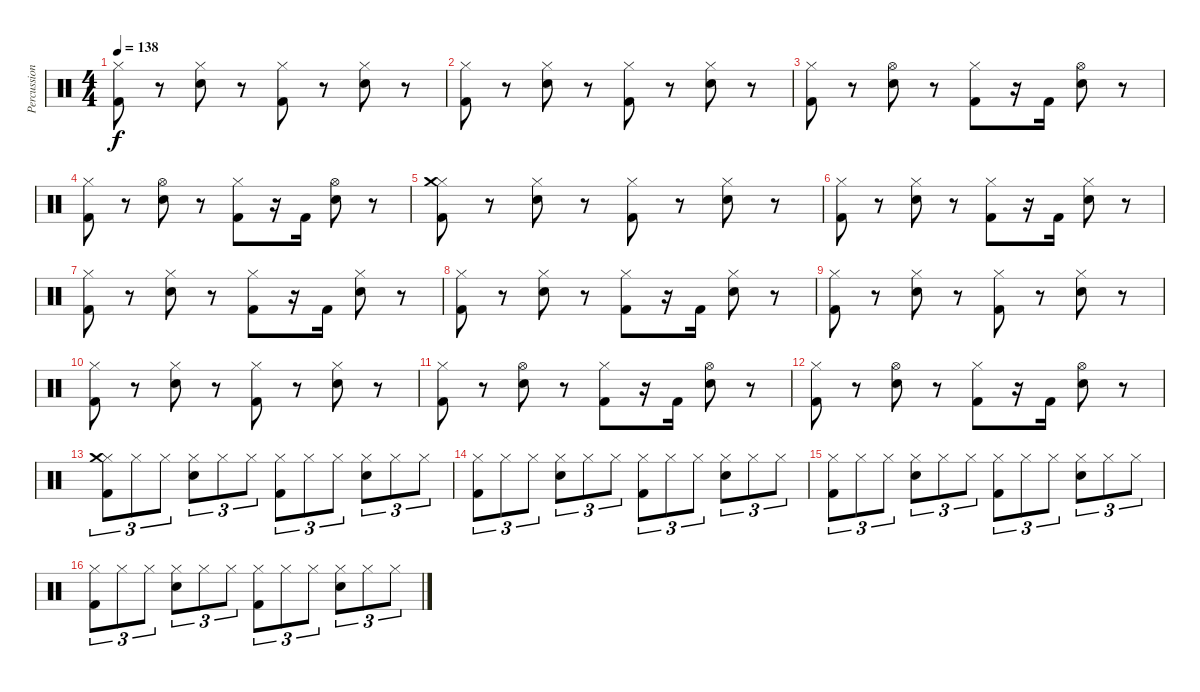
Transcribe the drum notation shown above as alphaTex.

\track ("Percussions" "Percussion") {instrument percussion}
\staff {score}
\articulation defaults
\ts (4 4)
\tempo 138
\clef neutral
\ks c
("Hi-Hat (closed)" "Kick (hit) 2").8{dy f} r.8 ("Hi-Hat (closed)" "Electric Snare (hit)").8 r.8 ("Hi-Hat (closed)" "Kick (hit) 2").8 r.8 ("Hi-Hat (closed)" "Electric Snare (hit)").8 r.8 |
("Hi-Hat (closed)" "Kick (hit) 2").8 r.8 ("Hi-Hat (closed)" "Electric Snare (hit)").8 r.8 ("Hi-Hat (closed)" "Kick (hit) 2").8 r.8 ("Hi-Hat (closed)" "Electric Snare (hit)").8 r.8 |
("Hi-Hat (closed)" "Kick (hit) 2").8 r.8 ("Hi-Hat (open)" "Electric Snare (hit)").8 r.8 ("Hi-Hat (closed)" "Kick (hit) 2").8 r.16 "Kick (hit) 2".16 ("Hi-Hat (open)" "Electric Snare (hit)").8 r.8 |
("Hi-Hat (closed)" "Kick (hit) 2").8 r.8 ("Hi-Hat (open)" "Electric Snare (hit)").8 r.8 ("Hi-Hat (closed)" "Kick (hit) 2").8 r.16 "Kick (hit) 2".16 ("Hi-Hat (open)" "Electric Snare (hit)").8 r.8 |
("Hi-Hat (closed)" "Crash medium (hit)" "Kick (hit) 2").8 r.8 ("Hi-Hat (closed)" "Electric Snare (hit)").8 r.8 ("Hi-Hat (closed)" "Kick (hit) 2").8 r.8 ("Hi-Hat (closed)" "Electric Snare (hit)").8 r.8 |
("Hi-Hat (closed)" "Kick (hit) 2").8 r.8 ("Hi-Hat (closed)" "Electric Snare (hit)").8 r.8 ("Hi-Hat (closed)" "Kick (hit) 2").8 r.16 "Kick (hit) 2".16 ("Hi-Hat (closed)" "Electric Snare (hit)").8 r.8 |
("Hi-Hat (closed)" "Kick (hit) 2").8 r.8 ("Hi-Hat (closed)" "Electric Snare (hit)").8 r.8 ("Hi-Hat (closed)" "Kick (hit) 2").8 r.16 "Kick (hit) 2".16 ("Hi-Hat (closed)" "Electric Snare (hit)").8 r.8 |
("Hi-Hat (closed)" "Kick (hit) 2").8 r.8 ("Hi-Hat (closed)" "Electric Snare (hit)").8 r.8 ("Hi-Hat (closed)" "Kick (hit) 2").8 r.16 "Kick (hit) 2".16 ("Hi-Hat (closed)" "Electric Snare (hit)").8 r.8 |
("Hi-Hat (closed)" "Kick (hit) 2").8 r.8 ("Hi-Hat (closed)" "Electric Snare (hit)").8 r.8 ("Hi-Hat (closed)" "Kick (hit) 2").8 r.8 ("Hi-Hat (closed)" "Electric Snare (hit)").8 r.8 |
("Hi-Hat (closed)" "Kick (hit) 2").8 r.8 ("Hi-Hat (closed)" "Electric Snare (hit)").8 r.8 ("Hi-Hat (closed)" "Kick (hit) 2").8 r.8 ("Hi-Hat (closed)" "Electric Snare (hit)").8 r.8 |
("Hi-Hat (closed)" "Kick (hit) 2").8 r.8 ("Hi-Hat (open)" "Electric Snare (hit)").8 r.8 ("Hi-Hat (closed)" "Kick (hit) 2").8 r.16 "Kick (hit) 2".16 ("Hi-Hat (open)" "Electric Snare (hit)").8 r.8 |
("Hi-Hat (closed)" "Kick (hit) 2").8 r.8 ("Hi-Hat (open)" "Electric Snare (hit)").8 r.8 ("Hi-Hat (closed)" "Kick (hit) 2").8 r.16 "Kick (hit) 2".16 ("Hi-Hat (open)" "Electric Snare (hit)").8 r.8 |
("Hi-Hat (closed)" "Crash medium (hit)" "Kick (hit) 2").8{tu (3 2)} "Hi-Hat (closed)".8{tu (3 2)} "Hi-Hat (closed)".8{tu (3 2)} ("Hi-Hat (closed)" "Electric Snare (hit)").8{tu (3 2)} "Hi-Hat (closed)".8{tu (3 2)} "Hi-Hat (closed)".8{tu (3 2)} ("Hi-Hat (closed)" "Kick (hit) 2").8{tu (3 2)} "Hi-Hat (closed)".8{tu (3 2)} "Hi-Hat (closed)".8{tu (3 2)} ("Hi-Hat (closed)" "Electric Snare (hit)").8{tu (3 2)} "Hi-Hat (closed)".8{tu (3 2)} "Hi-Hat (closed)".8{tu (3 2)} |
("Hi-Hat (closed)" "Kick (hit) 2").8{tu (3 2)} "Hi-Hat (closed)".8{tu (3 2)} "Hi-Hat (closed)".8{tu (3 2)} ("Hi-Hat (closed)" "Electric Snare (hit)").8{tu (3 2)} "Hi-Hat (closed)".8{tu (3 2)} "Hi-Hat (closed)".8{tu (3 2)} ("Hi-Hat (closed)" "Kick (hit) 2").8{tu (3 2)} "Hi-Hat (closed)".8{tu (3 2)} "Hi-Hat (closed)".8{tu (3 2)} ("Hi-Hat (closed)" "Electric Snare (hit)").8{tu (3 2)} "Hi-Hat (closed)".8{tu (3 2)} "Hi-Hat (closed)".8{tu (3 2)} |
("Hi-Hat (closed)" "Kick (hit) 2").8{tu (3 2)} "Hi-Hat (closed)".8{tu (3 2)} "Hi-Hat (closed)".8{tu (3 2)} ("Hi-Hat (closed)" "Electric Snare (hit)").8{tu (3 2)} "Hi-Hat (closed)".8{tu (3 2)} "Hi-Hat (closed)".8{tu (3 2)} ("Hi-Hat (closed)" "Kick (hit) 2").8{tu (3 2)} "Hi-Hat (closed)".8{tu (3 2)} "Hi-Hat (closed)".8{tu (3 2)} ("Hi-Hat (closed)" "Electric Snare (hit)").8{tu (3 2)} "Hi-Hat (closed)".8{tu (3 2)} "Hi-Hat (closed)".8{tu (3 2)} |
("Hi-Hat (closed)" "Kick (hit) 2").8{tu (3 2)} "Hi-Hat (closed)".8{tu (3 2)} "Hi-Hat (closed)".8{tu (3 2)} ("Hi-Hat (closed)" "Electric Snare (hit)").8{tu (3 2)} "Hi-Hat (closed)".8{tu (3 2)} "Hi-Hat (closed)".8{tu (3 2)} ("Hi-Hat (closed)" "Kick (hit) 2").8{tu (3 2)} "Hi-Hat (closed)".8{tu (3 2)} "Hi-Hat (closed)".8{tu (3 2)} ("Hi-Hat (closed)" "Electric Snare (hit)").8{tu (3 2)} "Hi-Hat (closed)".8{tu (3 2)} "Hi-Hat (closed)".8{tu (3 2)}
